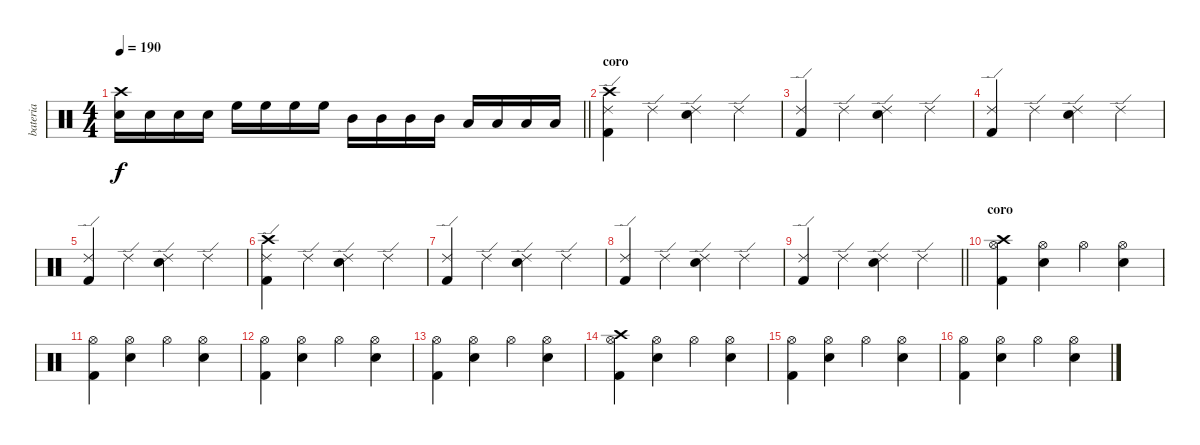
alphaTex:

\track ("bateria" "bateria") {instrument percussion}
\staff {score}
\articulation defaults
\ts (4 4)
\tempo 190
\clef neutral
\barLineRight lightlight
\ks c
("Electric Snare (hit)" "Crash high (hit)").16{dy f} "Electric Snare (hit)".16 "Electric Snare (hit)".16 "Electric Snare (hit)".16 "High Floor Tom (hit)".16 "High Floor Tom (hit)".16 "High Floor Tom (hit)".16 "High Floor Tom (hit)".16 "Mid Tom (hit)".16 "Mid Tom (hit)".16 "Mid Tom (hit)".16 "Mid Tom (hit)".16 "Low Tom (hit)".16 "Low Tom (hit)".16 "Low Tom (hit)".16 "Low Tom (hit)".16 |
\section ("" "coro")
("Ride (edge) 2" "Kick (hit) 2" "Crash high (hit)").4 "Ride (edge) 2".4 ("Ride (edge) 2" "Electric Snare (hit)").4 "Ride (edge) 2".4 |
("Ride (edge) 2" "Kick (hit) 2").4 "Ride (edge) 2".4 ("Ride (edge) 2" "Electric Snare (hit)").4 "Ride (edge) 2".4 |
("Ride (edge) 2" "Kick (hit) 2").4 "Ride (edge) 2".4 ("Ride (edge) 2" "Electric Snare (hit)").4 "Ride (edge) 2".4 |
("Ride (edge) 2" "Kick (hit) 2").4 "Ride (edge) 2".4 ("Ride (edge) 2" "Electric Snare (hit)").4 "Ride (edge) 2".4 |
("Ride (edge) 2" "Kick (hit) 2" "Crash high (hit)").4 "Ride (edge) 2".4 ("Ride (edge) 2" "Electric Snare (hit)").4 "Ride (edge) 2".4 |
("Ride (edge) 2" "Kick (hit) 2").4 "Ride (edge) 2".4 ("Ride (edge) 2" "Electric Snare (hit)").4 "Ride (edge) 2".4 |
("Ride (edge) 2" "Kick (hit) 2").4 "Ride (edge) 2".4 ("Ride (edge) 2" "Electric Snare (hit)").4 "Ride (edge) 2".4 |
\barLineRight lightlight
("Ride (edge) 2" "Kick (hit) 2").4 "Ride (edge) 2".4 ("Ride (edge) 2" "Electric Snare (hit)").4 "Ride (edge) 2".4 |
\section ("" "coro")
("Hi-Hat (open)" "Kick (hit) 2" "Crash high (hit)").4 ("Hi-Hat (open)" "Electric Snare (hit)").4 "Hi-Hat (open)".4 ("Hi-Hat (open)" "Electric Snare (hit)").4 |
("Hi-Hat (open)" "Kick (hit) 2").4 ("Hi-Hat (open)" "Electric Snare (hit)").4 "Hi-Hat (open)".4 ("Hi-Hat (open)" "Electric Snare (hit)").4 |
("Hi-Hat (open)" "Kick (hit) 2").4 ("Hi-Hat (open)" "Electric Snare (hit)").4 "Hi-Hat (open)".4 ("Hi-Hat (open)" "Electric Snare (hit)").4 |
("Hi-Hat (open)" "Kick (hit) 2").4 ("Hi-Hat (open)" "Electric Snare (hit)").4 "Hi-Hat (open)".4 ("Hi-Hat (open)" "Electric Snare (hit)").4 |
("Hi-Hat (open)" "Kick (hit) 2" "Crash high (hit)").4 ("Hi-Hat (open)" "Electric Snare (hit)").4 "Hi-Hat (open)".4 ("Hi-Hat (open)" "Electric Snare (hit)").4 |
("Hi-Hat (open)" "Kick (hit) 2").4 ("Hi-Hat (open)" "Electric Snare (hit)").4 "Hi-Hat (open)".4 ("Hi-Hat (open)" "Electric Snare (hit)").4 |
("Hi-Hat (open)" "Kick (hit) 2").4 ("Hi-Hat (open)" "Electric Snare (hit)").4 "Hi-Hat (open)".4 ("Hi-Hat (open)" "Electric Snare (hit)").4
